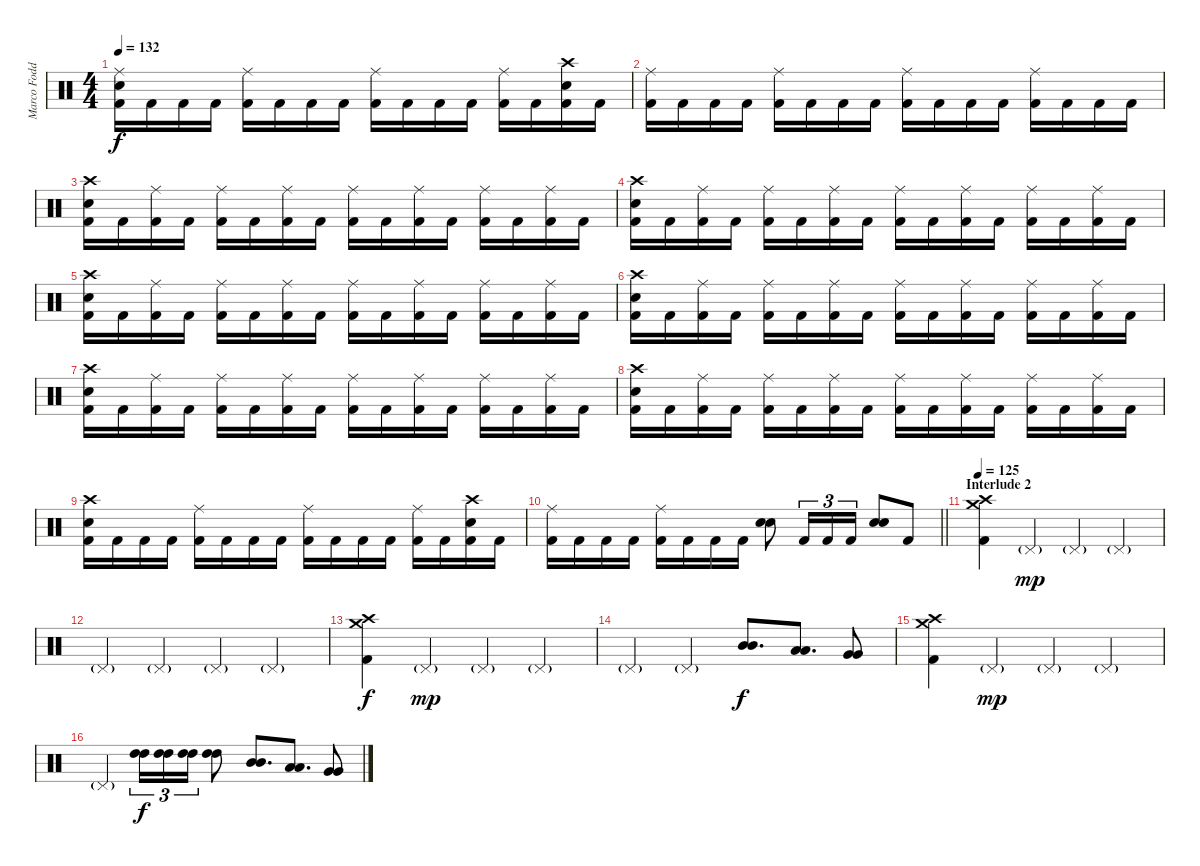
\track ("Marco Foddis " "Marco Fodd") {instrument percussion}
\staff {score}
\articulation defaults
\ts (4 4)
\tempo 132
\clef neutral
\ks c
("Ride (middle)" "Electric Snare (hit)" "Kick (hit) 2").16{dy f} "Kick (hit) 2".16 "Kick (hit) 2".16 "Kick (hit) 2".16 ("Ride (middle)" "Kick (hit) 2").16 "Kick (hit) 2".16 "Kick (hit) 2".16 "Kick (hit) 2".16 ("Ride (middle)" "Kick (hit) 2").16 "Kick (hit) 2".16 "Kick (hit) 2".16 "Kick (hit) 2".16 ("Ride (middle)" "Kick (hit) 2").16 "Kick (hit) 2".16 ("Crash high (hit)" "Electric Snare (hit)" "Kick (hit) 2").16 "Kick (hit) 2".16 |
("Ride (middle)" "Kick (hit) 2").16 "Kick (hit) 2".16 "Kick (hit) 2".16 "Kick (hit) 2".16 ("Ride (middle)" "Kick (hit) 2").16 "Kick (hit) 2".16 "Kick (hit) 2".16 "Kick (hit) 2".16 ("Ride (middle)" "Kick (hit) 2").16 "Kick (hit) 2".16 "Kick (hit) 2".16 "Kick (hit) 2".16 ("Ride (middle)" "Kick (hit) 2").16 "Kick (hit) 2".16 "Kick (hit) 2".16 "Kick (hit) 2".16 |
("Crash high (hit)" "Electric Snare (hit)" "Kick (hit) 2").16 "Kick (hit) 2".16 ("Ride (middle)" "Kick (hit) 2").16 "Kick (hit) 2".16 ("Ride (middle)" "Kick (hit) 2").16 "Kick (hit) 2".16 ("Ride (middle)" "Kick (hit) 2").16 "Kick (hit) 2".16 ("Ride (middle)" "Kick (hit) 2").16 "Kick (hit) 2".16 ("Ride (middle)" "Kick (hit) 2").16 "Kick (hit) 2".16 ("Ride (middle)" "Kick (hit) 2").16 "Kick (hit) 2".16 ("Ride (middle)" "Kick (hit) 2").16 "Kick (hit) 2".16 |
("Crash high (hit)" "Electric Snare (hit)" "Kick (hit) 2").16 "Kick (hit) 2".16 ("Ride (middle)" "Kick (hit) 2").16 "Kick (hit) 2".16 ("Ride (middle)" "Kick (hit) 2").16 "Kick (hit) 2".16 ("Ride (middle)" "Kick (hit) 2").16 "Kick (hit) 2".16 ("Ride (middle)" "Kick (hit) 2").16 "Kick (hit) 2".16 ("Ride (middle)" "Kick (hit) 2").16 "Kick (hit) 2".16 ("Ride (middle)" "Kick (hit) 2").16 "Kick (hit) 2".16 ("Ride (middle)" "Kick (hit) 2").16 "Kick (hit) 2".16 |
("Crash high (hit)" "Electric Snare (hit)" "Kick (hit) 2").16 "Kick (hit) 2".16 ("Ride (middle)" "Kick (hit) 2").16 "Kick (hit) 2".16 ("Ride (middle)" "Kick (hit) 2").16 "Kick (hit) 2".16 ("Ride (middle)" "Kick (hit) 2").16 "Kick (hit) 2".16 ("Ride (middle)" "Kick (hit) 2").16 "Kick (hit) 2".16 ("Ride (middle)" "Kick (hit) 2").16 "Kick (hit) 2".16 ("Ride (middle)" "Kick (hit) 2").16 "Kick (hit) 2".16 ("Ride (middle)" "Kick (hit) 2").16 "Kick (hit) 2".16 |
("Crash high (hit)" "Electric Snare (hit)" "Kick (hit) 2").16 "Kick (hit) 2".16 ("Ride (middle)" "Kick (hit) 2").16 "Kick (hit) 2".16 ("Ride (middle)" "Kick (hit) 2").16 "Kick (hit) 2".16 ("Ride (middle)" "Kick (hit) 2").16 "Kick (hit) 2".16 ("Ride (middle)" "Kick (hit) 2").16 "Kick (hit) 2".16 ("Ride (middle)" "Kick (hit) 2").16 "Kick (hit) 2".16 ("Ride (middle)" "Kick (hit) 2").16 "Kick (hit) 2".16 ("Ride (middle)" "Kick (hit) 2").16 "Kick (hit) 2".16 |
("Crash high (hit)" "Electric Snare (hit)" "Kick (hit) 2").16 "Kick (hit) 2".16 ("Ride (middle)" "Kick (hit) 2").16 "Kick (hit) 2".16 ("Ride (middle)" "Kick (hit) 2").16 "Kick (hit) 2".16 ("Ride (middle)" "Kick (hit) 2").16 "Kick (hit) 2".16 ("Ride (middle)" "Kick (hit) 2").16 "Kick (hit) 2".16 ("Ride (middle)" "Kick (hit) 2").16 "Kick (hit) 2".16 ("Ride (middle)" "Kick (hit) 2").16 "Kick (hit) 2".16 ("Ride (middle)" "Kick (hit) 2").16 "Kick (hit) 2".16 |
("Crash high (hit)" "Electric Snare (hit)" "Kick (hit) 2").16 "Kick (hit) 2".16 ("Ride (middle)" "Kick (hit) 2").16 "Kick (hit) 2".16 ("Ride (middle)" "Kick (hit) 2").16 "Kick (hit) 2".16 ("Ride (middle)" "Kick (hit) 2").16 "Kick (hit) 2".16 ("Ride (middle)" "Kick (hit) 2").16 "Kick (hit) 2".16 ("Ride (middle)" "Kick (hit) 2").16 "Kick (hit) 2".16 ("Ride (middle)" "Kick (hit) 2").16 "Kick (hit) 2".16 ("Ride (middle)" "Kick (hit) 2").16 "Kick (hit) 2".16 |
("Crash high (hit)" "Electric Snare (hit)" "Kick (hit) 2").16 "Kick (hit) 2".16 "Kick (hit) 2".16 "Kick (hit) 2".16 ("Ride (middle)" "Kick (hit) 2").16 "Kick (hit) 2".16 "Kick (hit) 2".16 "Kick (hit) 2".16 ("Ride (middle)" "Kick (hit) 2").16 "Kick (hit) 2".16 "Kick (hit) 2".16 "Kick (hit) 2".16 ("Ride (middle)" "Kick (hit) 2").16 "Kick (hit) 2".16 ("Crash high (hit)" "Electric Snare (hit)" "Kick (hit) 2").16 "Kick (hit) 2".16 |
\barLineRight lightlight
("Ride (middle)" "Kick (hit) 2").16 "Kick (hit) 2".16 "Kick (hit) 2".16 "Kick (hit) 2".16 ("Ride (middle)" "Kick (hit) 2").16 "Kick (hit) 2".16 "Kick (hit) 2".16 "Kick (hit) 2".16 ("Electric Snare (hit)" "Electric Snare (hit)").8 "Kick (hit) 2".16{tu (3 2)} "Kick (hit) 2".16{tu (3 2)} "Kick (hit) 2".16{tu (3 2)} ("Electric Snare (hit)" "Electric Snare (hit)").8 "Kick (hit) 2".8 |
\section ("" "Interlude 2")
\tempo 125
("Crash high (hit)" "Crash medium (hit)" "Kick (hit) 2").4 "Pedal Hi-Hat (hit)"{g}.4{dy mp} "Pedal Hi-Hat (hit)"{g}.4 "Pedal Hi-Hat (hit)"{g}.4 |
"Pedal Hi-Hat (hit)"{g}.4 "Pedal Hi-Hat (hit)"{g}.4 "Pedal Hi-Hat (hit)"{g}.4 "Pedal Hi-Hat (hit)"{g}.4 |
("Crash high (hit)" "Crash medium (hit)" "Kick (hit) 2").4{dy f} "Pedal Hi-Hat (hit)"{g}.4{dy mp} "Pedal Hi-Hat (hit)"{g}.4 "Pedal Hi-Hat (hit)"{g}.4 |
"Pedal Hi-Hat (hit)"{g}.4 "Pedal Hi-Hat (hit)"{g}.4 ("Mid Tom (hit)" "Mid Tom (hit)").8{d dy f} ("Low Tom (hit)" "Low Tom (hit)").8{d} ("Very Low Tom (hit)" "Very Low Tom (hit)").8 |
("Crash high (hit)" "Crash medium (hit)" "Kick (hit) 2").4 "Pedal Hi-Hat (hit)"{g}.4{dy mp} "Pedal Hi-Hat (hit)"{g}.4 "Pedal Hi-Hat (hit)"{g}.4 |
"Pedal Hi-Hat (hit)"{g}.4 ("High Tom (hit)" "High Tom (hit)").16{tu (3 2) dy f} ("High Tom (hit)" "High Tom (hit)").16{tu (3 2)} ("High Tom (hit)" "High Tom (hit)").16{tu (3 2)} ("High Tom (hit)" "High Tom (hit)").8 ("Mid Tom (hit)" "Mid Tom (hit)").8{d} ("Low Tom (hit)" "Low Tom (hit)").8{d} ("Very Low Tom (hit)" "Very Low Tom (hit)").8
